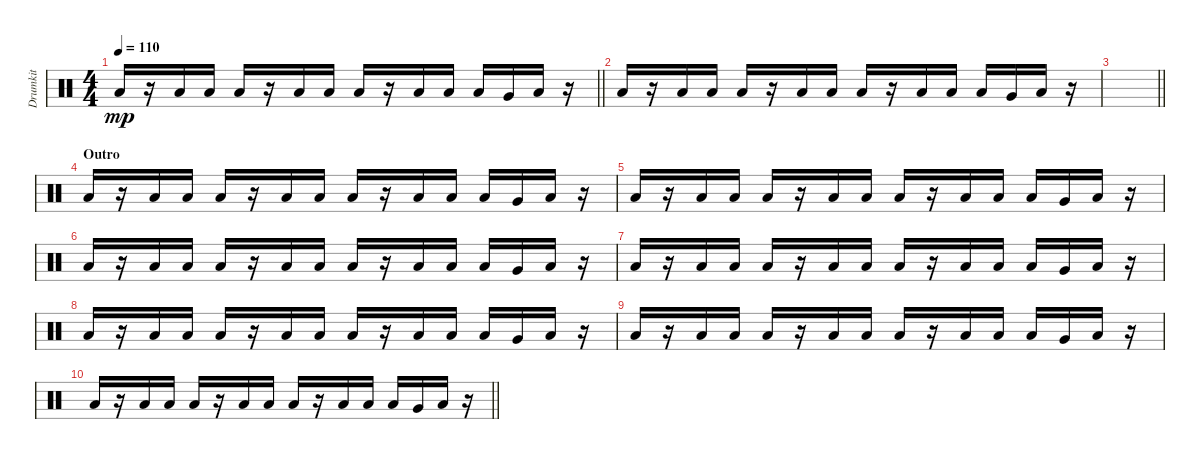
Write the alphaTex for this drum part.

\track ("Drumkit" "Drumkit") {instrument percussion}
\staff {score}
\articulation defaults
\ts (4 4)
\tempo 110
\clef neutral
\barLineRight lightlight
\ks c "Low Tom (hit)".16{dy mp}
r.16 "Low Tom (hit)".16 "Low Tom (hit)".16 "Low Tom (hit)".16 r.16 "Low Tom (hit)".16 "Low Tom (hit)".16 "Low Tom (hit)".16 r.16 "Low Tom (hit)".16 "Low Tom (hit)".16 "Low Tom (hit)".16 "Very Low Tom (hit)".16 "Low Tom (hit)".16 r.16 |
"Low Tom (hit)".16 r.16 "Low Tom (hit)".16 "Low Tom (hit)".16 "Low Tom (hit)".16 r.16 "Low Tom (hit)".16 "Low Tom (hit)".16 "Low Tom (hit)".16 r.16 "Low Tom (hit)".16 "Low Tom (hit)".16 "Low Tom (hit)".16 "Very Low Tom (hit)".16 "Low Tom (hit)".16 r.16 |
\barLineRight lightlight
|
\section ("" "Outro")
"Low Tom (hit)".16 r.16 "Low Tom (hit)".16 "Low Tom (hit)".16 "Low Tom (hit)".16 r.16 "Low Tom (hit)".16 "Low Tom (hit)".16 "Low Tom (hit)".16 r.16 "Low Tom (hit)".16 "Low Tom (hit)".16 "Low Tom (hit)".16 "Very Low Tom (hit)".16 "Low Tom (hit)".16 r.16 |
"Low Tom (hit)".16 r.16 "Low Tom (hit)".16 "Low Tom (hit)".16 "Low Tom (hit)".16 r.16 "Low Tom (hit)".16 "Low Tom (hit)".16 "Low Tom (hit)".16 r.16 "Low Tom (hit)".16 "Low Tom (hit)".16 "Low Tom (hit)".16 "Very Low Tom (hit)".16 "Low Tom (hit)".16 r.16 |
"Low Tom (hit)".16 r.16 "Low Tom (hit)".16 "Low Tom (hit)".16 "Low Tom (hit)".16 r.16 "Low Tom (hit)".16 "Low Tom (hit)".16 "Low Tom (hit)".16 r.16 "Low Tom (hit)".16 "Low Tom (hit)".16 "Low Tom (hit)".16 "Very Low Tom (hit)".16 "Low Tom (hit)".16 r.16 |
"Low Tom (hit)".16 r.16 "Low Tom (hit)".16 "Low Tom (hit)".16 "Low Tom (hit)".16 r.16 "Low Tom (hit)".16 "Low Tom (hit)".16 "Low Tom (hit)".16 r.16 "Low Tom (hit)".16 "Low Tom (hit)".16 "Low Tom (hit)".16 "Very Low Tom (hit)".16 "Low Tom (hit)".16 r.16 |
"Low Tom (hit)".16 r.16 "Low Tom (hit)".16 "Low Tom (hit)".16 "Low Tom (hit)".16 r.16 "Low Tom (hit)".16 "Low Tom (hit)".16 "Low Tom (hit)".16 r.16 "Low Tom (hit)".16 "Low Tom (hit)".16 "Low Tom (hit)".16 "Very Low Tom (hit)".16 "Low Tom (hit)".16 r.16 |
"Low Tom (hit)".16 r.16 "Low Tom (hit)".16 "Low Tom (hit)".16 "Low Tom (hit)".16 r.16 "Low Tom (hit)".16 "Low Tom (hit)".16 "Low Tom (hit)".16 r.16 "Low Tom (hit)".16 "Low Tom (hit)".16 "Low Tom (hit)".16 "Very Low Tom (hit)".16 "Low Tom (hit)".16 r.16 |
\barLineRight lightlight "Low Tom (hit)".16
r.16 "Low Tom (hit)".16 "Low Tom (hit)".16 "Low Tom (hit)".16 r.16 "Low Tom (hit)".16 "Low Tom (hit)".16 "Low Tom (hit)".16 r.16 "Low Tom (hit)".16 "Low Tom (hit)".16 "Low Tom (hit)".16 "Very Low Tom (hit)".16 "Low Tom (hit)".16 r.16
